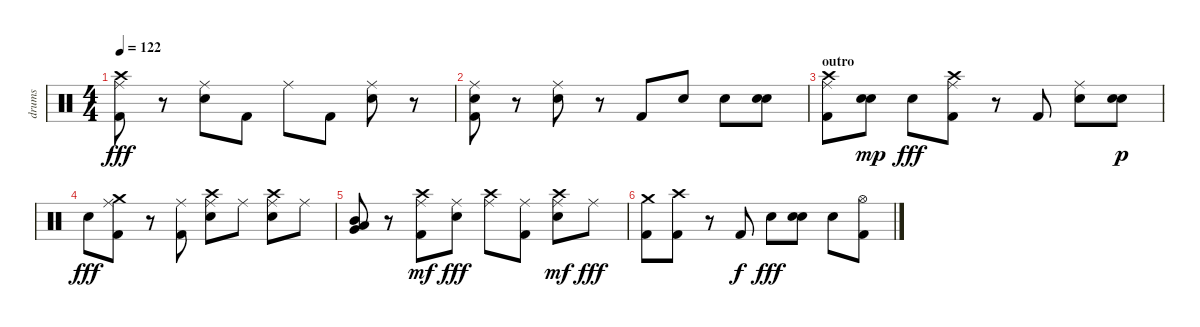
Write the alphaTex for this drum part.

\track ("drums" "drums") {instrument percussion}
\staff {score}
\articulation defaults
\ts (4 4)
\tempo 122
\clef neutral
\ks c
("Ride (middle)" "Crash high (hit)" "Kick (hit) 2").8{dy fff} r.8 ("Electric Snare (hit)" "Ride (middle)").8 "Kick (hit) 2".8 "Ride (middle)".8 "Kick (hit) 2".8 ("Ride (middle)" "Electric Snare (hit)").8 r.8 |
("Electric Snare (hit)" "Kick (hit) 2" "Ride (middle)").8 r.8 ("Electric Snare (hit)" "Ride (middle)").8 r.8 "Kick (hit) 2".8 "Electric Snare (hit)".8 "Electric Snare (hit)".8 ("Electric Snare (hit)" "Electric Snare (hit)").8 |
\section ("" "outro")
("Crash high (hit)" "Kick (hit) 2" "Ride (middle)").8 ("Electric Snare (hit)" "Electric Snare (hit)").8{dy mp} "Electric Snare (hit)".8{dy fff} ("Crash high (hit)" "Kick (hit) 2" "Ride (middle)").8 r.8 "Kick (hit) 2".8 ("Ride (middle)" "Electric Snare (hit)").8 ("Electric Snare (hit)" "Electric Snare (hit)").8{dy p} |
"Electric Snare (hit)".8{dy fff} ("Crash medium (hit)" "Kick (hit) 2" "Ride (middle)").8 r.8 ("Ride (middle)" "Kick (hit) 2").8 ("Crash high (hit)" "Ride (middle)" "Electric Snare (hit)").8 "Ride (middle)".8 ("Crash high (hit)" "Ride (middle)" "Electric Snare (hit)").8 "Ride (middle)".8 |
("Mid Tom (hit)" "Low Tom (hit)" "Very Low Tom (hit)").8 r.8 ("Kick (hit) 2" "Ride (middle)" "Crash high (hit)").8{dy mf} ("Electric Snare (hit)" "Ride (middle)").8{dy fff} ("Crash high (hit)" "Ride (middle)").8 ("Ride (middle)" "Kick (hit) 2").8 ("Ride (middle)" "Electric Snare (hit)" "Crash high (hit)").8{dy mf} "Ride (middle)".8{dy fff} |
("Crash medium (hit)" "Kick (hit) 2").8 ("Crash high (hit)" "Kick (hit) 2").8 r.8 "Kick (hit) 2".8{dy f} "Electric Snare (hit)".8{dy fff} ("Electric Snare (hit)" "Electric Snare (hit)").8 "Electric Snare (hit)".8 ("Kick (hit) 2" "Hi-Hat (open)").8
